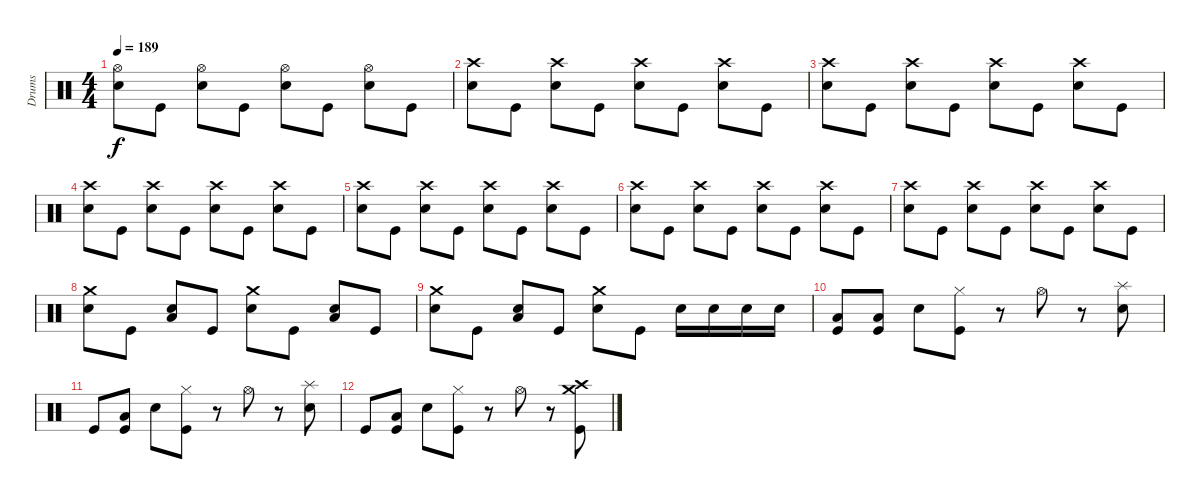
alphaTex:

\track ("Drums" "Drums") {instrument percussion}
\staff {score}
\articulation defaults
\ts (4 4)
\tempo 189
\clef neutral
\ks c
("Hi-Hat (open)" "Electric Snare (hit)").8{dy f} "Kick (hit)".8 ("Hi-Hat (open)" "Electric Snare (hit)").8 "Kick (hit)".8 ("Hi-Hat (open)" "Electric Snare (hit)").8 "Kick (hit)".8 ("Hi-Hat (open)" "Electric Snare (hit)").8 "Kick (hit)".8 |
("Crash high (hit)" "Electric Snare (hit)").8 "Kick (hit)".8 ("Crash high (hit)" "Electric Snare (hit)").8 "Kick (hit)".8 ("Crash high (hit)" "Electric Snare (hit)").8 "Kick (hit)".8 ("Crash high (hit)" "Electric Snare (hit)").8 "Kick (hit)".8 |
("Crash high (hit)" "Electric Snare (hit)").8 "Kick (hit)".8 ("Crash high (hit)" "Electric Snare (hit)").8 "Kick (hit)".8 ("Crash high (hit)" "Electric Snare (hit)").8 "Kick (hit)".8 ("Crash high (hit)" "Electric Snare (hit)").8 "Kick (hit)".8 |
("Crash high (hit)" "Electric Snare (hit)").8 "Kick (hit)".8 ("Crash high (hit)" "Electric Snare (hit)").8 "Kick (hit)".8 ("Crash high (hit)" "Electric Snare (hit)").8 "Kick (hit)".8 ("Crash high (hit)" "Electric Snare (hit)").8 "Kick (hit)".8 |
("Crash high (hit)" "Electric Snare (hit)").8 "Kick (hit)".8 ("Crash high (hit)" "Electric Snare (hit)").8 "Kick (hit)".8 ("Crash high (hit)" "Electric Snare (hit)").8 "Kick (hit)".8 ("Crash high (hit)" "Electric Snare (hit)").8 "Kick (hit)".8 |
("Crash high (hit)" "Electric Snare (hit)").8 "Kick (hit)".8 ("Crash high (hit)" "Electric Snare (hit)").8 "Kick (hit)".8 ("Crash high (hit)" "Electric Snare (hit)").8 "Kick (hit)".8 ("Crash high (hit)" "Electric Snare (hit)").8 "Kick (hit)".8 |
("Crash high (hit)" "Electric Snare (hit)").8 "Kick (hit)".8 ("Crash high (hit)" "Electric Snare (hit)").8 "Kick (hit)".8 ("Crash high (hit)" "Electric Snare (hit)").8 "Kick (hit)".8 ("Crash high (hit)" "Electric Snare (hit)").8 "Kick (hit)".8 |
("Crash medium (hit)" "Electric Snare (hit)").8 "Kick (hit)".8 ("Low Floor Tom (hit)" "Electric Snare (hit)").8 "Kick (hit)".8 ("Crash medium (hit)" "Electric Snare (hit)").8 "Kick (hit)".8 ("Low Floor Tom (hit)" "Electric Snare (hit)").8 "Kick (hit)".8 |
("Crash medium (hit)" "Electric Snare (hit)").8 "Kick (hit)".8 ("Low Floor Tom (hit)" "Electric Snare (hit)").8 "Kick (hit)".8 ("Crash medium (hit)" "Electric Snare (hit)").8 "Kick (hit)".8 "Electric Snare (hit)".16 "Electric Snare (hit)".16 "Electric Snare (hit)".16 "Electric Snare (hit)".16 |
("Low Floor Tom (hit)" "Kick (hit)").8 ("Low Floor Tom (hit)" "Kick (hit)").8 "Electric Snare (hit)".8 ("Hi-Hat (closed)" "Kick (hit)").8 r.8 "Hi-Hat (open)".8 r.8 ("Splash (hit)" "Electric Snare (hit)").8 |
"Kick (hit)".8 ("Low Floor Tom (hit)" "Kick (hit)").8 "Electric Snare (hit)".8 ("Hi-Hat (closed)" "Kick (hit)").8 r.8 "Hi-Hat (open)".8 r.8 ("Splash (hit)" "Electric Snare (hit)").8 |
"Kick (hit)".8 ("Low Floor Tom (hit)" "Kick (hit)").8 "Electric Snare (hit)".8 ("Hi-Hat (closed)" "Kick (hit)").8 r.8 "Hi-Hat (open)".8 r.8 ("Crash medium (hit)" "Crash high (hit)" "Kick (hit)").8
